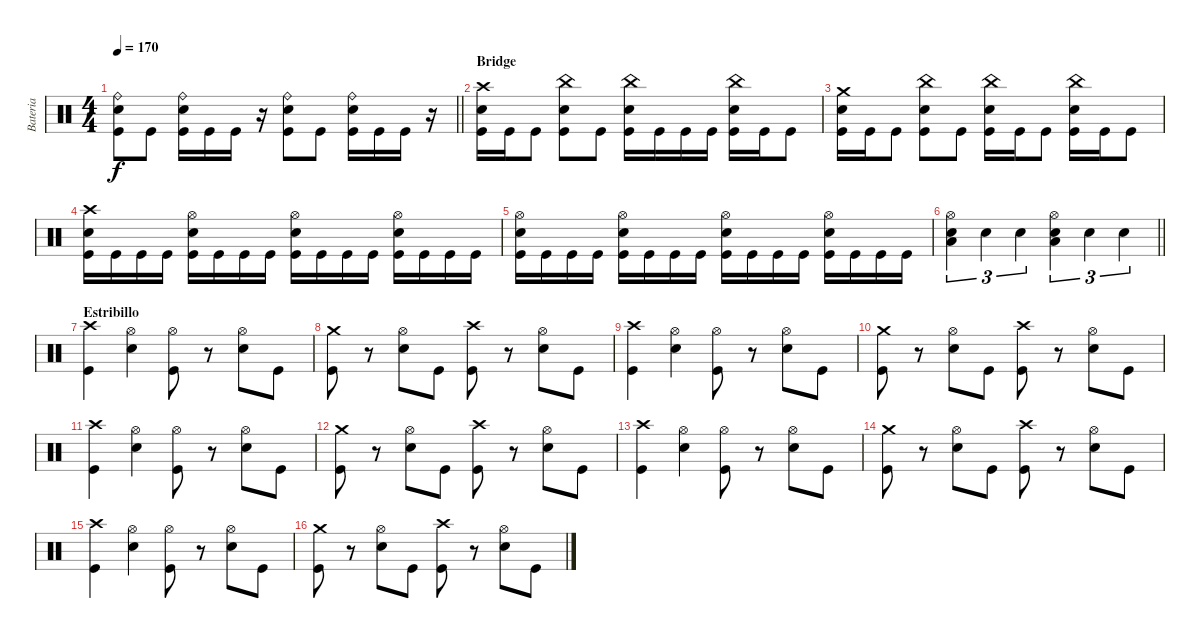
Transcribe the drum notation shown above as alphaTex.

\track ("Bateria" "Bateria") {instrument percussion}
\staff {score}
\articulation defaults
\ts (4 4)
\tempo 170
\clef neutral
\barLineRight lightlight
\ks c
("Snare (hit) 2" "Kick (hit)" "Ride (bell)").8{dy f} "Kick (hit)".8 ("Snare (hit) 2" "Kick (hit)" "Ride (bell)").16 "Kick (hit)".16 "Kick (hit)".16 r.16 ("Snare (hit) 2" "Kick (hit)" "Ride (bell)").8 "Kick (hit)".8 ("Snare (hit) 2" "Kick (hit)" "Ride (bell)").16 "Kick (hit)".16 "Kick (hit)".16 r.16 |
\section ("" "Bridge")
("Snare (hit) 2" "Kick (hit)" "Crash high (hit)").16 "Kick (hit)".16 "Kick (hit)".8 ("Snare (hit) 2" "Kick (hit)" "China (hit)").8 "Kick (hit)".8 ("Snare (hit) 2" "Kick (hit)" "China (hit)").16 "Kick (hit)".16 "Kick (hit)".16 "Kick (hit)".16 ("Snare (hit) 2" "Kick (hit)" "China (hit)").16 "Kick (hit)".16 "Kick (hit)".8 |
("Snare (hit) 2" "Kick (hit)" "Crash medium (hit)").16 "Kick (hit)".16 "Kick (hit)".8 ("Snare (hit) 2" "Kick (hit)" "China (hit)").8 "Kick (hit)".8 ("Snare (hit) 2" "Kick (hit)" "China (hit)").16 "Kick (hit)".16 "Kick (hit)".8 ("Snare (hit) 2" "Kick (hit)" "China (hit)").16 "Kick (hit)".16 "Kick (hit)".8 |
("Snare (hit) 2" "Kick (hit)" "Crash high (hit)").16 "Kick (hit)".16 "Kick (hit)".16 "Kick (hit)".16 ("Snare (hit) 2" "Kick (hit)" "Hi-Hat (open)").16 "Kick (hit)".16 "Kick (hit)".16 "Kick (hit)".16 ("Snare (hit) 2" "Kick (hit)" "Hi-Hat (open)").16 "Kick (hit)".16 "Kick (hit)".16 "Kick (hit)".16 ("Snare (hit) 2" "Kick (hit)" "Hi-Hat (open)").16 "Kick (hit)".16 "Kick (hit)".16 "Kick (hit)".16 |
("Snare (hit) 2" "Kick (hit)" "Hi-Hat (open)").16 "Kick (hit)".16 "Kick (hit)".16 "Kick (hit)".16 ("Snare (hit) 2" "Kick (hit)" "Hi-Hat (open)").16 "Kick (hit)".16 "Kick (hit)".16 "Kick (hit)".16 ("Snare (hit) 2" "Kick (hit)" "Hi-Hat (open)").16 "Kick (hit)".16 "Kick (hit)".16 "Kick (hit)".16 ("Snare (hit) 2" "Kick (hit)" "Hi-Hat (open)").16 "Kick (hit)".16 "Kick (hit)".16 "Kick (hit)".16 |
\barLineRight lightlight
("Snare (hit) 2" "Hi-Hat (open)" "Low Tom (hit)").4{tu (3 2)} "Snare (hit) 2".4{tu (3 2)} "Snare (hit) 2".4{tu (3 2)} ("Snare (hit) 2" "Hi-Hat (open)" "Low Tom (hit)").4{tu (3 2)} "Snare (hit) 2".4{tu (3 2)} "Snare (hit) 2".4{tu (3 2)} |
\section ("" "Estribillo")
("Kick (hit)" "Crash high (hit)").4 ("Snare (hit) 2" "Hi-Hat (open)").4 ("Kick (hit)" "Hi-Hat (open)").8 r.8 ("Snare (hit) 2" "Hi-Hat (open)").8 "Kick (hit)".8 |
("Kick (hit)" "Crash medium (hit)").8 r.8 ("Snare (hit) 2" "Hi-Hat (open)").8 "Kick (hit)".8 ("Kick (hit)" "Crash high (hit)").8 r.8 ("Snare (hit) 2" "Hi-Hat (open)").8 "Kick (hit)".8 |
("Kick (hit)" "Crash high (hit)").4 ("Snare (hit) 2" "Hi-Hat (open)").4 ("Kick (hit)" "Hi-Hat (open)").8 r.8 ("Snare (hit) 2" "Hi-Hat (open)").8 "Kick (hit)".8 |
("Kick (hit)" "Crash medium (hit)").8 r.8 ("Snare (hit) 2" "Hi-Hat (open)").8 "Kick (hit)".8 ("Kick (hit)" "Crash high (hit)").8 r.8 ("Snare (hit) 2" "Hi-Hat (open)").8 "Kick (hit)".8 |
("Kick (hit)" "Crash high (hit)").4 ("Snare (hit) 2" "Hi-Hat (open)").4 ("Kick (hit)" "Hi-Hat (open)").8 r.8 ("Snare (hit) 2" "Hi-Hat (open)").8 "Kick (hit)".8 |
("Kick (hit)" "Crash medium (hit)").8 r.8 ("Snare (hit) 2" "Hi-Hat (open)").8 "Kick (hit)".8 ("Kick (hit)" "Crash high (hit)").8 r.8 ("Snare (hit) 2" "Hi-Hat (open)").8 "Kick (hit)".8 |
("Kick (hit)" "Crash high (hit)").4 ("Snare (hit) 2" "Hi-Hat (open)").4 ("Kick (hit)" "Hi-Hat (open)").8 r.8 ("Snare (hit) 2" "Hi-Hat (open)").8 "Kick (hit)".8 |
("Kick (hit)" "Crash medium (hit)").8 r.8 ("Snare (hit) 2" "Hi-Hat (open)").8 "Kick (hit)".8 ("Kick (hit)" "Crash high (hit)").8 r.8 ("Snare (hit) 2" "Hi-Hat (open)").8 "Kick (hit)".8 |
("Kick (hit)" "Crash high (hit)").4 ("Snare (hit) 2" "Hi-Hat (open)").4 ("Kick (hit)" "Hi-Hat (open)").8 r.8 ("Snare (hit) 2" "Hi-Hat (open)").8 "Kick (hit)".8 |
("Kick (hit)" "Crash medium (hit)").8 r.8 ("Snare (hit) 2" "Hi-Hat (open)").8 "Kick (hit)".8 ("Kick (hit)" "Crash high (hit)").8 r.8 ("Snare (hit) 2" "Hi-Hat (open)").8 "Kick (hit)".8
